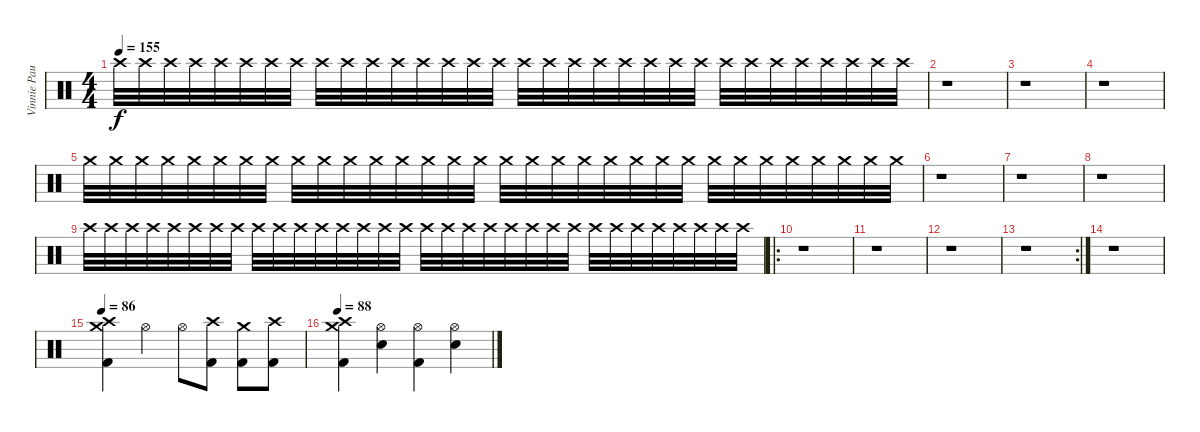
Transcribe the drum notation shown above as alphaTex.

\track ("Vinnie Paul (Drums)" "Vinnie Pau") {instrument percussion}
\staff {score}
\articulation defaults
\ts (4 4)
\tempo 155
\clef neutral
\ks c "Crash high (hit)".32{dy f volume 0} "Crash high (hit)".32{volume 14} "Crash high (hit)".32 "Crash high (hit)".32 "Crash high (hit)".32 "Crash high (hit)".32 "Crash high (hit)".32 "Crash high (hit)".32 "Crash high (hit)".32 "Crash high (hit)".32 "Crash high (hit)".32 "Crash high (hit)".32 "Crash high (hit)".32 "Crash high (hit)".32 "Crash high (hit)".32 "Crash high (hit)".32 "Crash high (hit)".32 "Crash high (hit)".32 "Crash high (hit)".32 "Crash high (hit)".32 "Crash high (hit)".32 "Crash high (hit)".32 "Crash high (hit)".32 "Crash high (hit)".32 "Crash high (hit)".32 "Crash high (hit)".32 "Crash high (hit)".32 "Crash high (hit)".32 "Crash high (hit)".32 "Crash high (hit)".32 "Crash high (hit)".32 "Crash high (hit)".32
|
r.1 |
r.1 |
r.1 |
"Crash medium (hit)".32{volume 0} "Crash medium (hit)".32{volume 14} "Crash medium (hit)".32 "Crash medium (hit)".32 "Crash medium (hit)".32 "Crash medium (hit)".32 "Crash medium (hit)".32 "Crash medium (hit)".32 "Crash medium (hit)".32 "Crash medium (hit)".32 "Crash medium (hit)".32 "Crash medium (hit)".32 "Crash medium (hit)".32 "Crash medium (hit)".32 "Crash medium (hit)".32 "Crash medium (hit)".32 "Crash medium (hit)".32 "Crash medium (hit)".32 "Crash medium (hit)".32 "Crash medium (hit)".32 "Crash medium (hit)".32 "Crash medium (hit)".32 "Crash medium (hit)".32 "Crash medium (hit)".32 "Crash medium (hit)".32 "Crash medium (hit)".32 "Crash medium (hit)".32 "Crash medium (hit)".32 "Crash medium (hit)".32 "Crash medium (hit)".32 "Crash medium (hit)".32 "Crash medium (hit)".32 |
r.1 |
r.1 |
r.1 |
"Crash high (hit)".32{volume 0} "Crash high (hit)".32{volume 14} "Crash high (hit)".32 "Crash high (hit)".32 "Crash high (hit)".32 "Crash high (hit)".32 "Crash high (hit)".32 "Crash high (hit)".32 "Crash high (hit)".32 "Crash high (hit)".32 "Crash high (hit)".32 "Crash high (hit)".32 "Crash high (hit)".32 "Crash high (hit)".32 "Crash high (hit)".32 "Crash high (hit)".32 "Crash high (hit)".32 "Crash high (hit)".32 "Crash high (hit)".32 "Crash high (hit)".32 "Crash high (hit)".32 "Crash high (hit)".32 "Crash high (hit)".32 "Crash high (hit)".32 "Crash high (hit)".32 "Crash high (hit)".32 "Crash high (hit)".32 "Crash high (hit)".32 "Crash high (hit)".32 "Crash high (hit)".32 "Crash high (hit)".32 "Crash high (hit)".32 |
\ro
r.1 |
r.1 |
r.1 |
\rc 2
r.1 |
r.1 |
\tempo 86
("Crash medium (hit)" "Crash high (hit)" "Kick (hit) 2").4 "Hi-Hat (open)".4 "Hi-Hat (open)".8 ("Crash high (hit)" "Kick (hit) 2").8 ("Crash medium (hit)" "Kick (hit) 2").8 ("Crash high (hit)" "Kick (hit) 2").8 |
\tempo 88
("Crash high (hit)" "Crash medium (hit)" "Kick (hit) 2").4 ("Hi-Hat (open)" "Snare (hit) 2").4 ("Hi-Hat (open)" "Kick (hit) 2").4 ("Hi-Hat (open)" "Snare (hit) 2").4
